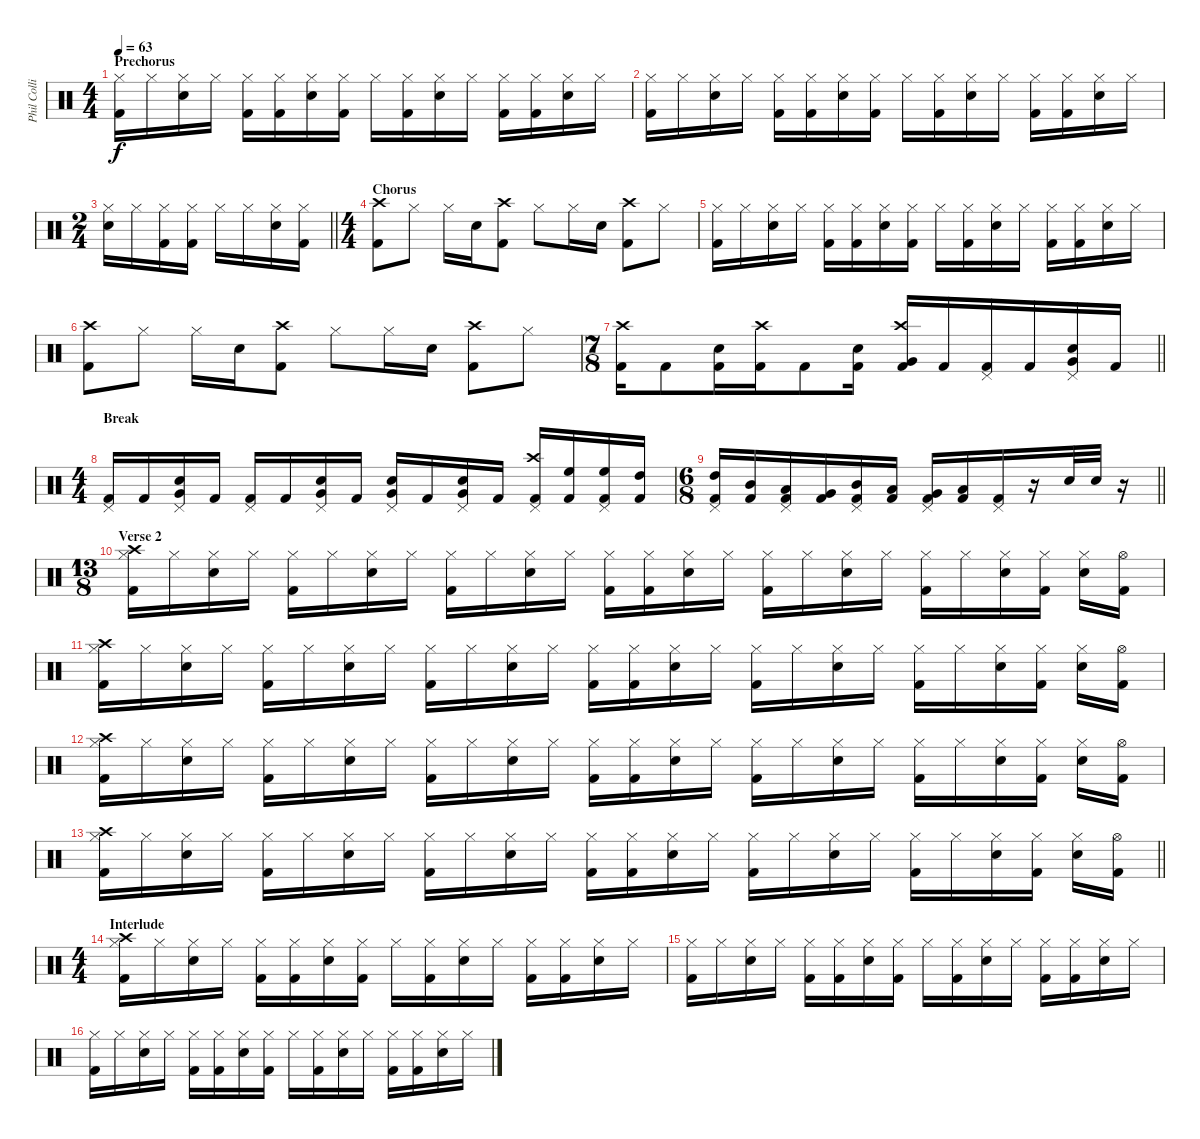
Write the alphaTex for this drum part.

\track ("Phil Collins (Percussion)" "Phil Colli") {instrument percussion}
\staff {score}
\articulation defaults
\ts (4 4)
\section ("" "Prechorus")
\tempo 63
\clef neutral
\ks c
("Hi-Hat (closed)" "Kick (hit) 2").16{dy f} "Hi-Hat (closed)".16 ("Snare (hit) 2" "Hi-Hat (closed)").16 "Hi-Hat (closed)".16 ("Hi-Hat (closed)" "Kick (hit) 2").16 ("Hi-Hat (closed)" "Kick (hit) 2").16 ("Snare (hit) 2" "Hi-Hat (closed)").16 ("Hi-Hat (closed)" "Kick (hit) 2").16 "Hi-Hat (closed)".16 ("Hi-Hat (closed)" "Kick (hit) 2").16 ("Snare (hit) 2" "Hi-Hat (closed)").16 "Hi-Hat (closed)".16 ("Hi-Hat (closed)" "Kick (hit) 2").16 ("Hi-Hat (closed)" "Kick (hit) 2").16 ("Snare (hit) 2" "Hi-Hat (closed)").16 "Hi-Hat (closed)".16 |
("Hi-Hat (closed)" "Kick (hit) 2").16 "Hi-Hat (closed)".16 ("Snare (hit) 2" "Hi-Hat (closed)").16 "Hi-Hat (closed)".16 ("Hi-Hat (closed)" "Kick (hit) 2").16 ("Hi-Hat (closed)" "Kick (hit) 2").16 ("Snare (hit) 2" "Hi-Hat (closed)").16 ("Hi-Hat (closed)" "Kick (hit) 2").16 "Hi-Hat (closed)".16 ("Hi-Hat (closed)" "Kick (hit) 2").16 ("Snare (hit) 2" "Hi-Hat (closed)").16 "Hi-Hat (closed)".16 ("Hi-Hat (closed)" "Kick (hit) 2").16 ("Hi-Hat (closed)" "Kick (hit) 2").16 ("Snare (hit) 2" "Hi-Hat (closed)").16 "Hi-Hat (closed)".16 |
\ts (2 4)
\barLineRight lightlight
("Snare (hit) 2" "Hi-Hat (closed)").16 "Hi-Hat (closed)".16 ("Hi-Hat (closed)" "Kick (hit) 2").16 ("Hi-Hat (closed)" "Kick (hit) 2").16 "Hi-Hat (closed)".16 "Hi-Hat (closed)".16 ("Snare (hit) 2" "Hi-Hat (closed)").16 ("Hi-Hat (closed)" "Kick (hit) 2").16 |
\ts (4 4)
\section ("" "Chorus")
("Crash high (hit)" "Kick (hit) 2").8 "Hi-Hat (closed)".8 "Hi-Hat (closed)".16 "Snare (hit) 2".16 ("Crash high (hit)" "Kick (hit) 2").8 "Hi-Hat (closed)".8 "Hi-Hat (closed)".16 "Snare (hit) 2".16 ("Crash high (hit)" "Kick (hit) 2").8 "Hi-Hat (closed)".8 |
("Hi-Hat (closed)" "Kick (hit) 2").16 "Hi-Hat (closed)".16 ("Snare (hit) 2" "Hi-Hat (closed)").16 "Hi-Hat (closed)".16 ("Hi-Hat (closed)" "Kick (hit) 2").16 ("Hi-Hat (closed)" "Kick (hit) 2").16 ("Snare (hit) 2" "Hi-Hat (closed)").16 ("Hi-Hat (closed)" "Kick (hit) 2").16 "Hi-Hat (closed)".16 ("Hi-Hat (closed)" "Kick (hit) 2").16 ("Snare (hit) 2" "Hi-Hat (closed)").16 "Hi-Hat (closed)".16 ("Hi-Hat (closed)" "Kick (hit) 2").16 ("Hi-Hat (closed)" "Kick (hit) 2").16 ("Snare (hit) 2" "Hi-Hat (closed)").16 "Hi-Hat (closed)".16 |
("Crash high (hit)" "Kick (hit) 2").8 "Hi-Hat (closed)".8 "Hi-Hat (closed)".16 "Snare (hit) 2".16 ("Crash high (hit)" "Kick (hit) 2").8 "Hi-Hat (closed)".8 "Hi-Hat (closed)".16 "Snare (hit) 2".16 ("Crash high (hit)" "Kick (hit) 2").8 "Hi-Hat (closed)".8 |
\ts (7 8)
\barLineRight lightlight
("Crash high (hit)" "Kick (hit) 2").16 "Kick (hit) 2".8 ("Snare (hit) 2" "Kick (hit) 2").16 ("Crash high (hit)" "Kick (hit) 2").16 "Kick (hit) 2".8 ("Snare (hit) 2" "Kick (hit) 2").16 ("Crash high (hit)" "Very Low Tom (hit)" "Kick (hit) 2").16 "Kick (hit) 2".16 ("Pedal Hi-Hat (hit)" "Kick (hit) 2").16 "Kick (hit) 2".16 ("Very Low Tom (hit)" "Pedal Hi-Hat (hit)" "Snare (hit) 2").16 "Kick (hit) 2".16 |
\ts (4 4)
\section ("" "Break")
("Pedal Hi-Hat (hit)" "Kick (hit) 2").16 "Kick (hit) 2".16 ("Very Low Tom (hit)" "Pedal Hi-Hat (hit)" "Snare (hit) 2").16 "Kick (hit) 2".16 ("Pedal Hi-Hat (hit)" "Kick (hit) 2").16 "Kick (hit) 2".16 ("Very Low Tom (hit)" "Pedal Hi-Hat (hit)" "Snare (hit) 2").16 "Kick (hit) 2".16 ("Very Low Tom (hit)" "Pedal Hi-Hat (hit)" "Snare (hit) 2").16 "Kick (hit) 2".16 ("Very Low Tom (hit)" "Pedal Hi-Hat (hit)" "Snare (hit) 2").16 "Kick (hit) 2".16 ("Crash high (hit)" "Pedal Hi-Hat (hit)" "Kick (hit) 2").16 ("High Floor Tom (hit)" "Kick (hit) 2").16 ("High Floor Tom (hit)" "Pedal Hi-Hat (hit)" "Kick (hit) 2").16 ("High Tom (hit)" "Kick (hit) 2").16 |
\ts (6 8)
\barLineRight lightlight
("High Tom (hit)" "Pedal Hi-Hat (hit)" "Kick (hit) 2").16 ("Mid Tom (hit)" "Kick (hit) 2").16 ("Low Tom (hit)" "Pedal Hi-Hat (hit)" "Kick (hit) 2").16 ("Very Low Tom (hit)" "Kick (hit) 2").16 ("Mid Tom (hit)" "Pedal Hi-Hat (hit)" "Kick (hit) 2").16 ("Low Tom (hit)" "Kick (hit) 2").16 ("Very Low Tom (hit)" "Pedal Hi-Hat (hit)" "Kick (hit) 2").16 ("Low Floor Tom (hit)" "Kick (hit) 2").16 ("Pedal Hi-Hat (hit)" "Kick (hit) 2").16 r.16 "Snare (hit) 2".32 "Snare (hit) 2".32 r.16 |
\ts (13 8)
\section ("" "Verse 2")
("Crash high (hit)" "Hi-Hat (closed)" "Kick (hit) 2").16 "Hi-Hat (closed)".16 ("Snare (hit) 2" "Hi-Hat (closed)").16 "Hi-Hat (closed)".16 ("Hi-Hat (closed)" "Kick (hit) 2").16 "Hi-Hat (closed)".16 ("Snare (hit) 2" "Hi-Hat (closed)").16 "Hi-Hat (closed)".16 ("Hi-Hat (closed)" "Kick (hit) 2").16 "Hi-Hat (closed)".16 ("Snare (hit) 2" "Hi-Hat (closed)").16 "Hi-Hat (closed)".16 ("Hi-Hat (closed)" "Kick (hit) 2").16 ("Hi-Hat (closed)" "Kick (hit) 2").16 ("Snare (hit) 2" "Hi-Hat (closed)").16 "Hi-Hat (closed)".16 ("Hi-Hat (closed)" "Kick (hit) 2").16 "Hi-Hat (closed)".16 ("Snare (hit) 2" "Hi-Hat (closed)").16 "Hi-Hat (closed)".16 ("Hi-Hat (closed)" "Kick (hit) 2").16 "Hi-Hat (closed)".16 ("Snare (hit) 2" "Hi-Hat (closed)").16 ("Hi-Hat (closed)" "Kick (hit) 2").16 ("Snare (hit) 2" "Hi-Hat (closed)").16 ("Hi-Hat (open)" "Kick (hit) 2").16 |
("Crash high (hit)" "Hi-Hat (closed)" "Kick (hit) 2").16 "Hi-Hat (closed)".16 ("Snare (hit) 2" "Hi-Hat (closed)").16 "Hi-Hat (closed)".16 ("Hi-Hat (closed)" "Kick (hit) 2").16 "Hi-Hat (closed)".16 ("Snare (hit) 2" "Hi-Hat (closed)").16 "Hi-Hat (closed)".16 ("Hi-Hat (closed)" "Kick (hit) 2").16 "Hi-Hat (closed)".16 ("Snare (hit) 2" "Hi-Hat (closed)").16 "Hi-Hat (closed)".16 ("Hi-Hat (closed)" "Kick (hit) 2").16 ("Hi-Hat (closed)" "Kick (hit) 2").16 ("Snare (hit) 2" "Hi-Hat (closed)").16 "Hi-Hat (closed)".16 ("Hi-Hat (closed)" "Kick (hit) 2").16 "Hi-Hat (closed)".16 ("Snare (hit) 2" "Hi-Hat (closed)").16 "Hi-Hat (closed)".16 ("Hi-Hat (closed)" "Kick (hit) 2").16 "Hi-Hat (closed)".16 ("Snare (hit) 2" "Hi-Hat (closed)").16 ("Hi-Hat (closed)" "Kick (hit) 2").16 ("Snare (hit) 2" "Hi-Hat (closed)").16 ("Hi-Hat (open)" "Kick (hit) 2").16 |
("Crash high (hit)" "Hi-Hat (closed)" "Kick (hit) 2").16 "Hi-Hat (closed)".16 ("Snare (hit) 2" "Hi-Hat (closed)").16 "Hi-Hat (closed)".16 ("Hi-Hat (closed)" "Kick (hit) 2").16 "Hi-Hat (closed)".16 ("Snare (hit) 2" "Hi-Hat (closed)").16 "Hi-Hat (closed)".16 ("Hi-Hat (closed)" "Kick (hit) 2").16 "Hi-Hat (closed)".16 ("Snare (hit) 2" "Hi-Hat (closed)").16 "Hi-Hat (closed)".16 ("Hi-Hat (closed)" "Kick (hit) 2").16 ("Hi-Hat (closed)" "Kick (hit) 2").16 ("Snare (hit) 2" "Hi-Hat (closed)").16 "Hi-Hat (closed)".16 ("Hi-Hat (closed)" "Kick (hit) 2").16 "Hi-Hat (closed)".16 ("Snare (hit) 2" "Hi-Hat (closed)").16 "Hi-Hat (closed)".16 ("Hi-Hat (closed)" "Kick (hit) 2").16 "Hi-Hat (closed)".16 ("Snare (hit) 2" "Hi-Hat (closed)").16 ("Hi-Hat (closed)" "Kick (hit) 2").16 ("Snare (hit) 2" "Hi-Hat (closed)").16 ("Hi-Hat (open)" "Kick (hit) 2").16 |
\barLineRight lightlight
("Crash high (hit)" "Hi-Hat (closed)" "Kick (hit) 2").16 "Hi-Hat (closed)".16 ("Snare (hit) 2" "Hi-Hat (closed)").16 "Hi-Hat (closed)".16 ("Hi-Hat (closed)" "Kick (hit) 2").16 "Hi-Hat (closed)".16 ("Snare (hit) 2" "Hi-Hat (closed)").16 "Hi-Hat (closed)".16 ("Hi-Hat (closed)" "Kick (hit) 2").16 "Hi-Hat (closed)".16 ("Snare (hit) 2" "Hi-Hat (closed)").16 "Hi-Hat (closed)".16 ("Hi-Hat (closed)" "Kick (hit) 2").16 ("Hi-Hat (closed)" "Kick (hit) 2").16 ("Snare (hit) 2" "Hi-Hat (closed)").16 "Hi-Hat (closed)".16 ("Hi-Hat (closed)" "Kick (hit) 2").16 "Hi-Hat (closed)".16 ("Snare (hit) 2" "Hi-Hat (closed)").16 "Hi-Hat (closed)".16 ("Hi-Hat (closed)" "Kick (hit) 2").16 "Hi-Hat (closed)".16 ("Snare (hit) 2" "Hi-Hat (closed)").16 ("Hi-Hat (closed)" "Kick (hit) 2").16 ("Snare (hit) 2" "Hi-Hat (closed)").16 ("Hi-Hat (open)" "Kick (hit) 2").16 |
\ts (4 4)
\section ("" "Interlude")
("Crash high (hit)" "Hi-Hat (closed)" "Kick (hit) 2").16 "Hi-Hat (closed)".16 ("Snare (hit) 2" "Hi-Hat (closed)").16 "Hi-Hat (closed)".16 ("Hi-Hat (closed)" "Kick (hit) 2").16 ("Hi-Hat (closed)" "Kick (hit) 2").16 ("Snare (hit) 2" "Hi-Hat (closed)").16 ("Hi-Hat (closed)" "Kick (hit) 2").16 "Hi-Hat (closed)".16 ("Hi-Hat (closed)" "Kick (hit) 2").16 ("Snare (hit) 2" "Hi-Hat (closed)").16 "Hi-Hat (closed)".16 ("Hi-Hat (closed)" "Kick (hit) 2").16 ("Hi-Hat (closed)" "Kick (hit) 2").16 ("Snare (hit) 2" "Hi-Hat (closed)").16 "Hi-Hat (closed)".16 |
("Hi-Hat (closed)" "Kick (hit) 2").16 "Hi-Hat (closed)".16 ("Snare (hit) 2" "Hi-Hat (closed)").16 "Hi-Hat (closed)".16 ("Hi-Hat (closed)" "Kick (hit) 2").16 ("Hi-Hat (closed)" "Kick (hit) 2").16 ("Snare (hit) 2" "Hi-Hat (closed)").16 ("Hi-Hat (closed)" "Kick (hit) 2").16 "Hi-Hat (closed)".16 ("Hi-Hat (closed)" "Kick (hit) 2").16 ("Snare (hit) 2" "Hi-Hat (closed)").16 "Hi-Hat (closed)".16 ("Hi-Hat (closed)" "Kick (hit) 2").16 ("Hi-Hat (closed)" "Kick (hit) 2").16 ("Snare (hit) 2" "Hi-Hat (closed)").16 "Hi-Hat (closed)".16 |
("Hi-Hat (closed)" "Kick (hit) 2").16 "Hi-Hat (closed)".16 ("Snare (hit) 2" "Hi-Hat (closed)").16 "Hi-Hat (closed)".16 ("Hi-Hat (closed)" "Kick (hit) 2").16 ("Hi-Hat (closed)" "Kick (hit) 2").16 ("Snare (hit) 2" "Hi-Hat (closed)").16 ("Hi-Hat (closed)" "Kick (hit) 2").16 "Hi-Hat (closed)".16 ("Hi-Hat (closed)" "Kick (hit) 2").16 ("Snare (hit) 2" "Hi-Hat (closed)").16 "Hi-Hat (closed)".16 ("Hi-Hat (closed)" "Kick (hit) 2").16 ("Hi-Hat (closed)" "Kick (hit) 2").16 ("Snare (hit) 2" "Hi-Hat (closed)").16 "Hi-Hat (closed)".16
